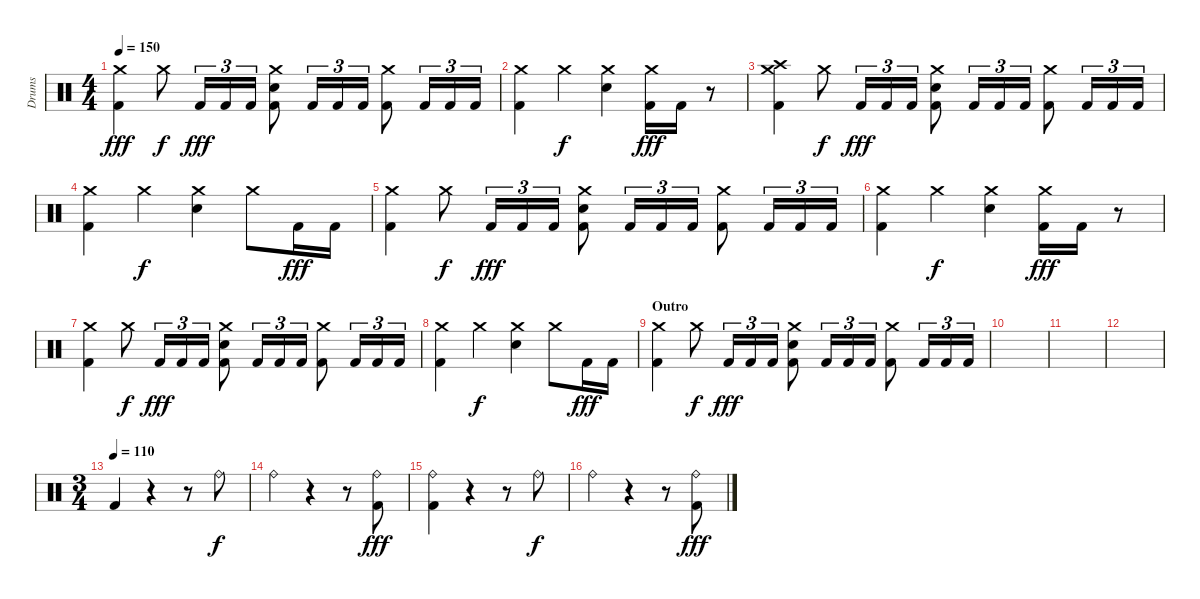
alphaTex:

\track ("Drums" "Drums") {instrument percussion}
\staff {score}
\articulation defaults
\ts (4 4)
\tempo 150
\clef neutral
\ks c
("Crash medium (hit)" "Kick (hit) 2").4{dy fff} "Crash medium (hit)".8{dy f} "Kick (hit) 2".16{tu (3 2) dy fff} "Kick (hit) 2".16{tu (3 2)} "Kick (hit) 2".16{tu (3 2)} ("Crash medium (hit)" "Snare (hit) 2" "Kick (hit) 2").8 "Kick (hit) 2".16{tu (3 2)} "Kick (hit) 2".16{tu (3 2)} "Kick (hit) 2".16{tu (3 2)} ("Crash medium (hit)" "Kick (hit) 2").8 "Kick (hit) 2".16{tu (3 2)} "Kick (hit) 2".16{tu (3 2)} "Kick (hit) 2".16{tu (3 2)} |
("Crash medium (hit)" "Kick (hit) 2").4 "Crash medium (hit)".4{dy f} ("Crash medium (hit)" "Snare (hit) 2").4 ("Crash medium (hit)" "Kick (hit) 2").16{dy fff} "Kick (hit) 2".16 r.8 |
("Crash medium (hit)" "Crash high (hit)" "Kick (hit) 2").4 "Crash medium (hit)".8{dy f} "Kick (hit) 2".16{tu (3 2) dy fff} "Kick (hit) 2".16{tu (3 2)} "Kick (hit) 2".16{tu (3 2)} ("Crash medium (hit)" "Snare (hit) 2" "Kick (hit) 2").8 "Kick (hit) 2".16{tu (3 2)} "Kick (hit) 2".16{tu (3 2)} "Kick (hit) 2".16{tu (3 2)} ("Crash medium (hit)" "Kick (hit) 2").8 "Kick (hit) 2".16{tu (3 2)} "Kick (hit) 2".16{tu (3 2)} "Kick (hit) 2".16{tu (3 2)} |
("Crash medium (hit)" "Kick (hit) 2").4 "Crash medium (hit)".4{dy f} ("Crash medium (hit)" "Snare (hit) 2").4 "Crash medium (hit)".8 "Kick (hit) 2".16{dy fff} "Kick (hit) 2".16 |
("Crash medium (hit)" "Kick (hit) 2").4 "Crash medium (hit)".8{dy f} "Kick (hit) 2".16{tu (3 2) dy fff} "Kick (hit) 2".16{tu (3 2)} "Kick (hit) 2".16{tu (3 2)} ("Crash medium (hit)" "Snare (hit) 2" "Kick (hit) 2").8 "Kick (hit) 2".16{tu (3 2)} "Kick (hit) 2".16{tu (3 2)} "Kick (hit) 2".16{tu (3 2)} ("Crash medium (hit)" "Kick (hit) 2").8 "Kick (hit) 2".16{tu (3 2)} "Kick (hit) 2".16{tu (3 2)} "Kick (hit) 2".16{tu (3 2)} |
("Crash medium (hit)" "Kick (hit) 2").4 "Crash medium (hit)".4{dy f} ("Crash medium (hit)" "Snare (hit) 2").4 ("Crash medium (hit)" "Kick (hit) 2").16{dy fff} "Kick (hit) 2".16 r.8 |
("Crash medium (hit)" "Kick (hit) 2").4{volume 0} "Crash medium (hit)".8{dy f} "Kick (hit) 2".16{tu (3 2) dy fff} "Kick (hit) 2".16{tu (3 2)} "Kick (hit) 2".16{tu (3 2)} ("Crash medium (hit)" "Snare (hit) 2" "Kick (hit) 2").8 "Kick (hit) 2".16{tu (3 2)} "Kick (hit) 2".16{tu (3 2)} "Kick (hit) 2".16{tu (3 2)} ("Crash medium (hit)" "Kick (hit) 2").8 "Kick (hit) 2".16{tu (3 2)} "Kick (hit) 2".16{tu (3 2)} "Kick (hit) 2".16{tu (3 2)} |
("Crash medium (hit)" "Kick (hit) 2").4 "Crash medium (hit)".4{dy f} ("Crash medium (hit)" "Snare (hit) 2").4 "Crash medium (hit)".8 "Kick (hit) 2".16{dy fff} "Kick (hit) 2".16 |
\section ("" "Outro")
("Crash medium (hit)" "Kick (hit) 2").4 "Crash medium (hit)".8{dy f} "Kick (hit) 2".16{tu (3 2) dy fff} "Kick (hit) 2".16{tu (3 2)} "Kick (hit) 2".16{tu (3 2)} ("Crash medium (hit)" "Snare (hit) 2" "Kick (hit) 2").8 "Kick (hit) 2".16{tu (3 2)} "Kick (hit) 2".16{tu (3 2)} "Kick (hit) 2".16{tu (3 2)} ("Crash medium (hit)" "Kick (hit) 2").8 "Kick (hit) 2".16{tu (3 2)} "Kick (hit) 2".16{tu (3 2)} "Kick (hit) 2".16{tu (3 2)} |
|
|
|
\ts (3 4)
\tempo (110)
"Kick (hit) 2".4{volume 10} r.4 r.8 "Ride (bell)".8{dy f} |
"Ride (bell)".4 r.4 r.8 ("Ride (bell)" "Kick (hit) 2").8{dy fff} |
("Ride (bell)" "Kick (hit) 2").4 r.4 r.8 "Ride (bell)".8{dy f} |
"Ride (bell)".4 r.4 r.8 ("Ride (bell)" "Kick (hit) 2").8{dy fff}
